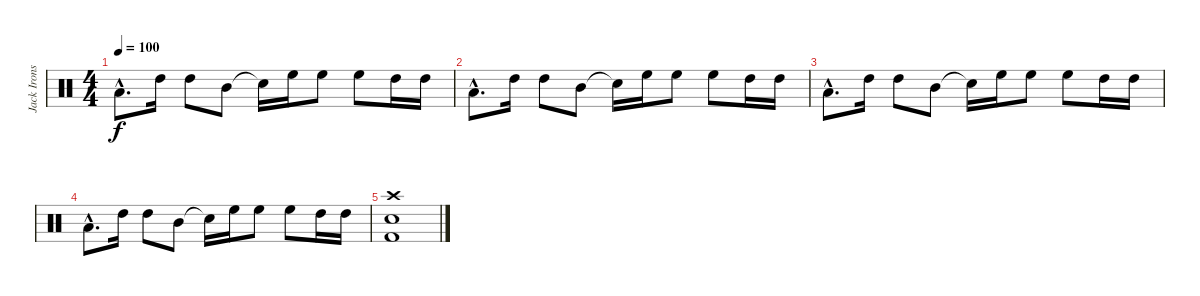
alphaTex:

\track ("Jack Irons" "Jack Irons") {instrument percussion}
\staff {score}
\articulation defaults
\ts (4 4)
\tempo 100
\clef neutral
\ks c "Low Floor Tom (hit)"{hac}.8{d dy f} "High Tom (hit)".16 "High Tom (hit)".8 "Mid Tom (hit)".8 "Snare (hit)"{t}.16 "High Floor Tom (hit)".16 "High Floor Tom (hit)".8 "High Floor Tom (hit)".8 "High Tom (hit)".16 "High Tom (hit)".16
|
"Low Floor Tom (hit)"{hac}.8{d} "High Tom (hit)".16 "High Tom (hit)".8 "Mid Tom (hit)".8 "Snare (hit)"{t}.16 "High Floor Tom (hit)".16 "High Floor Tom (hit)".8 "High Floor Tom (hit)".8 "High Tom (hit)".16 "High Tom (hit)".16 |
"Low Floor Tom (hit)"{hac}.8{d} "High Tom (hit)".16 "High Tom (hit)".8 "Mid Tom (hit)".8 "Snare (hit)"{t}.16 "High Floor Tom (hit)".16 "High Floor Tom (hit)".8 "High Floor Tom (hit)".8 "High Tom (hit)".16 "High Tom (hit)".16 |
"Low Floor Tom (hit)"{hac}.8{d} "High Tom (hit)".16 "High Tom (hit)".8 "Mid Tom (hit)".8 "Snare (hit)"{t}.16 "High Floor Tom (hit)".16 "High Floor Tom (hit)".8 "High Floor Tom (hit)".8 "High Tom (hit)".16 "High Tom (hit)".16 |
("Crash high (hit)" "Snare (hit) 2" "Kick (hit) 2").1
